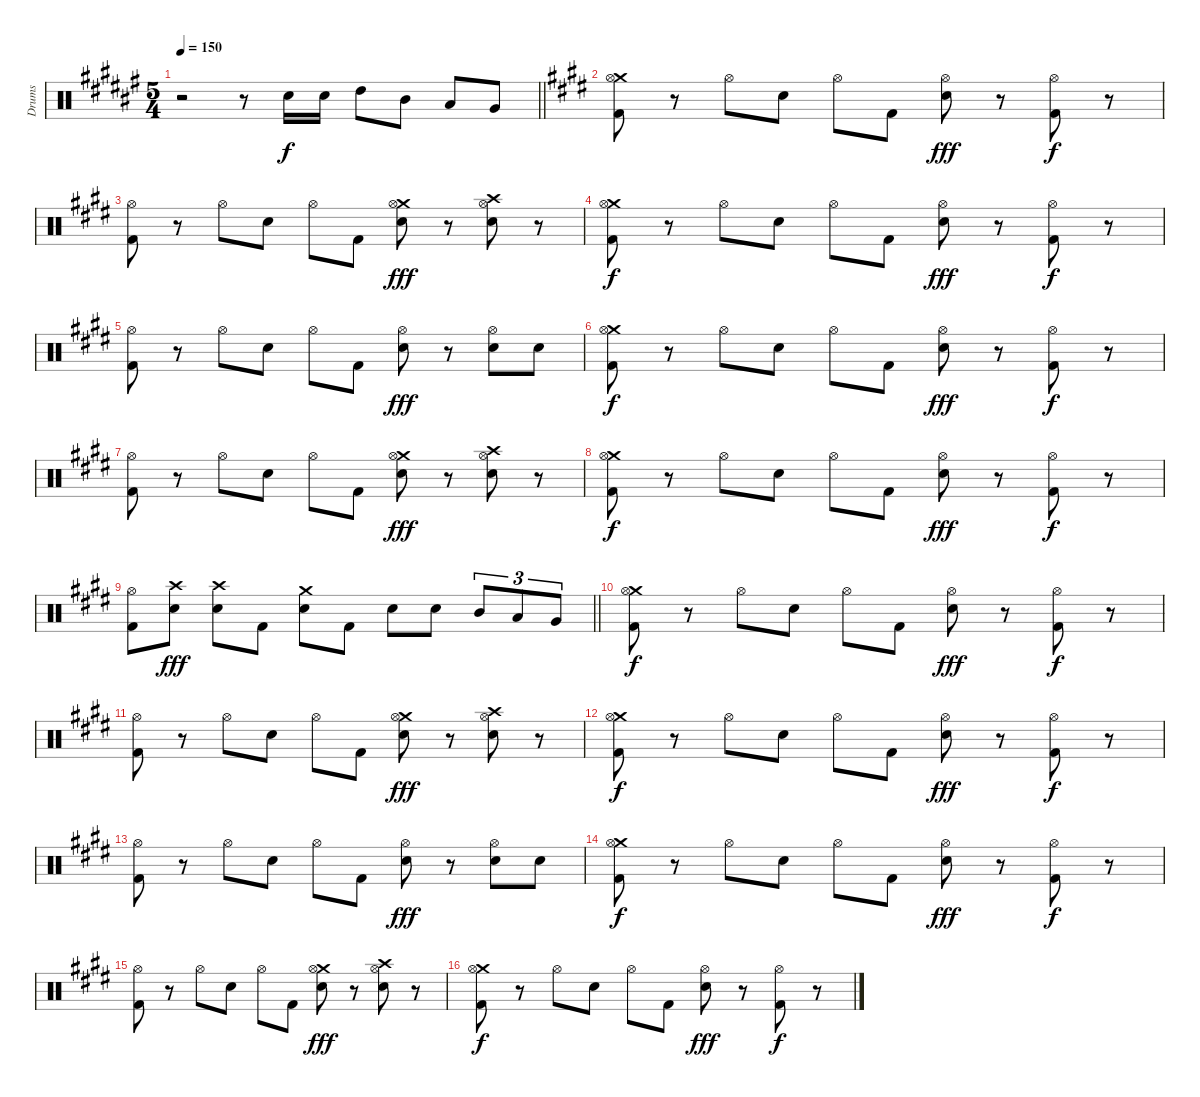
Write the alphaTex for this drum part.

\track ("Drums" "Drums") {instrument percussion}
\staff {score}
\articulation defaults
\ts (5 4)
\tempo 150
\clef neutral
\barLineRight lightlight
\ks d#minor
r.2{dy f} r.8 "Electric Snare (hit)".16 "Electric Snare (hit)".16 "High Tom (hit)".8 "Mid Tom (hit)".8 "Low Tom (hit)".8 "Very Low Tom (hit)".8 |
\section ("" "")
\ks c#minor
("Crash medium (hit)" "Hi-Hat (open)" "Kick (hit) 2").8 r.8 "Hi-Hat (open)".8 "Electric Snare (hit)".8 "Hi-Hat (open)".8 "Kick (hit) 2".8 ("Hi-Hat (open)" "Electric Snare (hit)").8{dy fff} r.8 ("Hi-Hat (open)" "Kick (hit) 2").8{dy f} r.8 |
("Hi-Hat (open)" "Kick (hit) 2").8 r.8 "Hi-Hat (open)".8 "Electric Snare (hit)".8 "Hi-Hat (open)".8 "Kick (hit) 2".8 ("Crash medium (hit)" "Hi-Hat (open)" "Electric Snare (hit)").8{dy fff} r.8 ("Crash high (hit)" "Hi-Hat (open)" "Electric Snare (hit)").8 r.8 |
("Crash medium (hit)" "Hi-Hat (open)" "Kick (hit) 2").8{dy f} r.8 "Hi-Hat (open)".8 "Electric Snare (hit)".8 "Hi-Hat (open)".8 "Kick (hit) 2".8 ("Hi-Hat (open)" "Electric Snare (hit)").8{dy fff} r.8 ("Hi-Hat (open)" "Kick (hit) 2").8{dy f} r.8 |
("Hi-Hat (open)" "Kick (hit) 2").8 r.8 "Hi-Hat (open)".8 "Electric Snare (hit)".8 "Hi-Hat (open)".8 "Kick (hit) 2".8 ("Hi-Hat (open)" "Electric Snare (hit)").8{dy fff} r.8 ("Hi-Hat (open)" "Electric Snare (hit)").8 "Electric Snare (hit)".8 |
("Crash medium (hit)" "Hi-Hat (open)" "Kick (hit) 2").8{dy f} r.8 "Hi-Hat (open)".8 "Electric Snare (hit)".8 "Hi-Hat (open)".8 "Kick (hit) 2".8 ("Hi-Hat (open)" "Electric Snare (hit)").8{dy fff} r.8 ("Hi-Hat (open)" "Kick (hit) 2").8{dy f} r.8 |
("Hi-Hat (open)" "Kick (hit) 2").8 r.8 "Hi-Hat (open)".8 "Electric Snare (hit)".8 "Hi-Hat (open)".8 "Kick (hit) 2".8 ("Crash medium (hit)" "Hi-Hat (open)" "Electric Snare (hit)").8{dy fff} r.8 ("Crash high (hit)" "Hi-Hat (open)" "Electric Snare (hit)").8 r.8 |
("Crash medium (hit)" "Hi-Hat (open)" "Kick (hit) 2").8{dy f} r.8 "Hi-Hat (open)".8 "Electric Snare (hit)".8 "Hi-Hat (open)".8 "Kick (hit) 2".8 ("Hi-Hat (open)" "Electric Snare (hit)").8{dy fff} r.8 ("Hi-Hat (open)" "Kick (hit) 2").8{dy f} r.8 |
\barLineRight lightlight
("Hi-Hat (open)" "Kick (hit) 2").8 ("Crash high (hit)" "Electric Snare (hit)").8{dy fff} ("Crash high (hit)" "Electric Snare (hit)").8 "Kick (hit) 2".8 ("Crash medium (hit)" "Electric Snare (hit)").8 "Kick (hit) 2".8 "Electric Snare (hit)".8 "Electric Snare (hit)".8 "Mid Tom (hit)".8{tu (3 2)} "Low Tom (hit)".8{tu (3 2)} "Very Low Tom (hit)".8{tu (3 2)} |
\section ("" "")
("Crash medium (hit)" "Hi-Hat (open)" "Kick (hit) 2").8{dy f} r.8 "Hi-Hat (open)".8 "Electric Snare (hit)".8 "Hi-Hat (open)".8 "Kick (hit) 2".8 ("Hi-Hat (open)" "Electric Snare (hit)").8{dy fff} r.8 ("Hi-Hat (open)" "Kick (hit) 2").8{dy f} r.8 |
("Hi-Hat (open)" "Kick (hit) 2").8 r.8 "Hi-Hat (open)".8 "Electric Snare (hit)".8 "Hi-Hat (open)".8 "Kick (hit) 2".8 ("Crash medium (hit)" "Hi-Hat (open)" "Electric Snare (hit)").8{dy fff} r.8 ("Crash high (hit)" "Hi-Hat (open)" "Electric Snare (hit)").8 r.8 |
("Crash medium (hit)" "Hi-Hat (open)" "Kick (hit) 2").8{dy f} r.8 "Hi-Hat (open)".8 "Electric Snare (hit)".8 "Hi-Hat (open)".8 "Kick (hit) 2".8 ("Hi-Hat (open)" "Electric Snare (hit)").8{dy fff} r.8 ("Hi-Hat (open)" "Kick (hit) 2").8{dy f} r.8 |
("Hi-Hat (open)" "Kick (hit) 2").8 r.8 "Hi-Hat (open)".8 "Electric Snare (hit)".8 "Hi-Hat (open)".8 "Kick (hit) 2".8 ("Hi-Hat (open)" "Electric Snare (hit)").8{dy fff} r.8 ("Hi-Hat (open)" "Electric Snare (hit)").8 "Electric Snare (hit)".8 |
("Crash medium (hit)" "Hi-Hat (open)" "Kick (hit) 2").8{dy f} r.8 "Hi-Hat (open)".8 "Electric Snare (hit)".8 "Hi-Hat (open)".8 "Kick (hit) 2".8 ("Hi-Hat (open)" "Electric Snare (hit)").8{dy fff} r.8 ("Hi-Hat (open)" "Kick (hit) 2").8{dy f} r.8 |
("Hi-Hat (open)" "Kick (hit) 2").8 r.8 "Hi-Hat (open)".8 "Electric Snare (hit)".8 "Hi-Hat (open)".8 "Kick (hit) 2".8 ("Crash medium (hit)" "Hi-Hat (open)" "Electric Snare (hit)").8{dy fff} r.8 ("Crash high (hit)" "Hi-Hat (open)" "Electric Snare (hit)").8 r.8 |
("Crash medium (hit)" "Hi-Hat (open)" "Kick (hit) 2").8{dy f} r.8 "Hi-Hat (open)".8 "Electric Snare (hit)".8 "Hi-Hat (open)".8 "Kick (hit) 2".8 ("Hi-Hat (open)" "Electric Snare (hit)").8{dy fff} r.8 ("Hi-Hat (open)" "Kick (hit) 2").8{dy f} r.8
